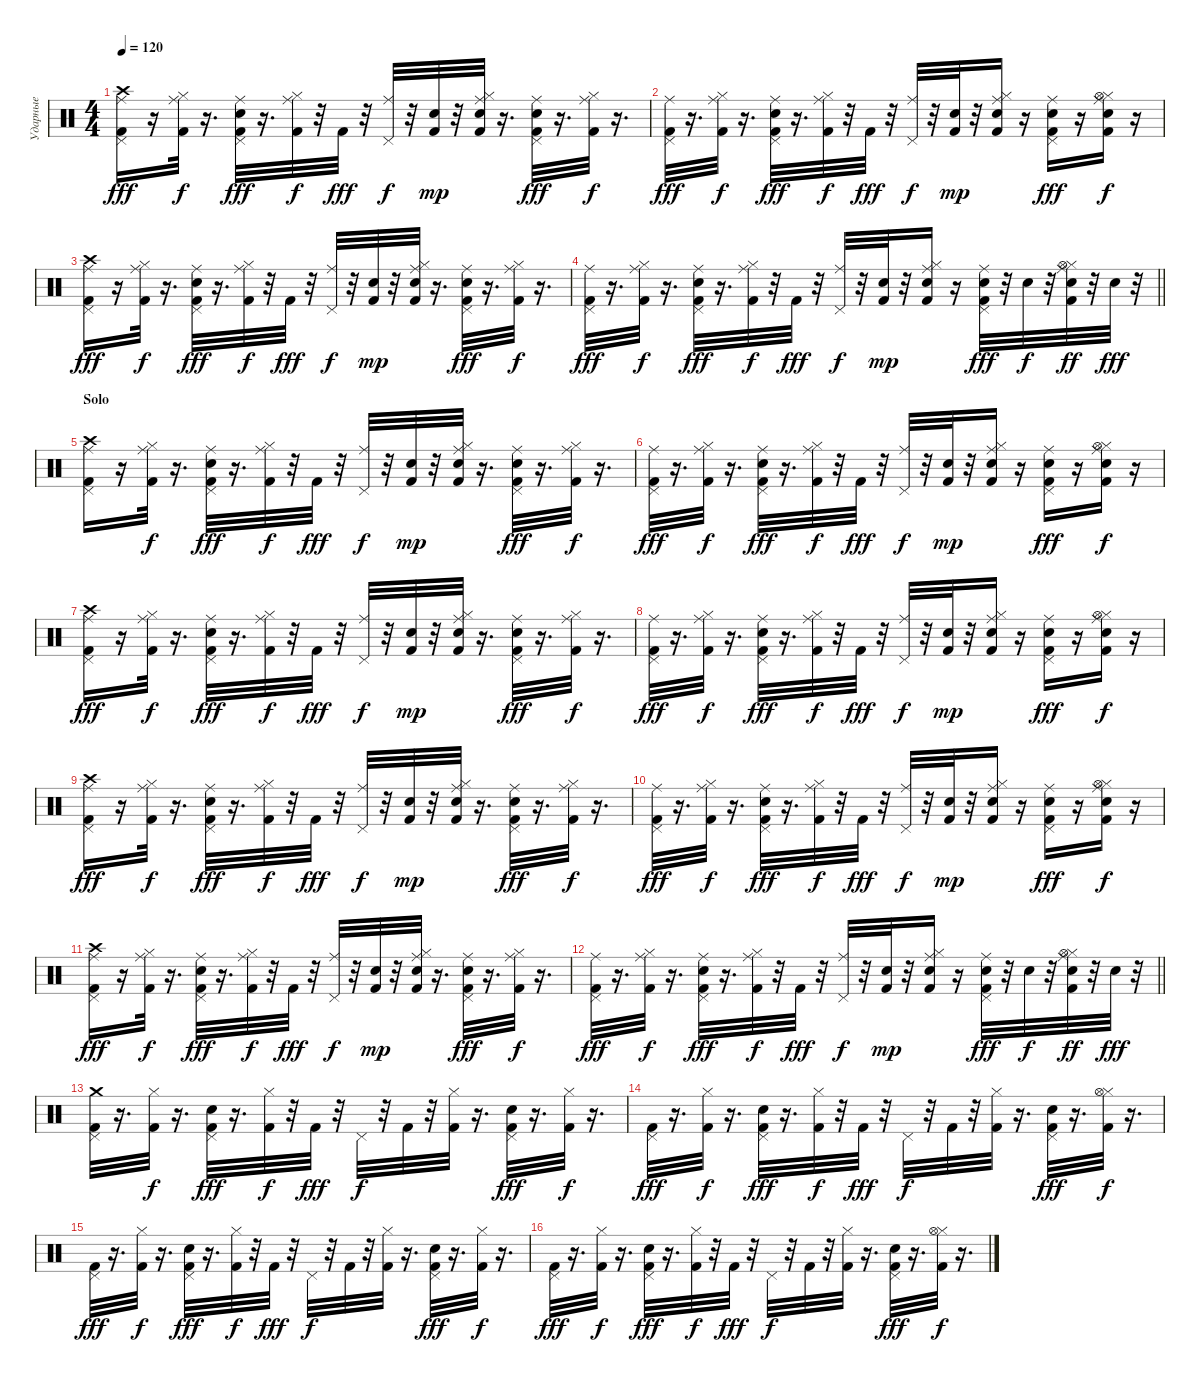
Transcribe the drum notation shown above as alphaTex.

\track ("Ударные" "Ударные") {instrument percussion}
\staff {score}
\articulation defaults
\ts (4 4)
\tempo 120
\clef neutral
\ks c
("Kick (hit) 2" "Pedal Hi-Hat (hit)" "Crash high (hit)" "Ride (middle)").16{dy fff} r.16 ("Kick (hit) 2" "Hi-Hat (closed)" "Ride (middle)").32{dy f} r.16{d} ("Kick (hit) 2" "Snare (hit) 2" "Pedal Hi-Hat (hit)" "Ride (middle)").32{dy fff} r.16{d} ("Kick (hit) 2" "Hi-Hat (closed)" "Ride (middle)").32{dy f} r.32 "Kick (hit) 2".32{dy fff} r.32 ("Pedal Hi-Hat (hit)" "Ride (middle)").32{dy f} r.32 ("Kick (hit) 2" "Snare (hit) 2").32{dy mp} r.32 ("Kick (hit) 2" "Snare (hit) 2" "Hi-Hat (closed)" "Ride (middle)").32 r.16{d} ("Kick (hit) 2" "Snare (hit) 2" "Pedal Hi-Hat (hit)" "Ride (middle)").32{dy fff} r.16{d} ("Kick (hit) 2" "Hi-Hat (closed)" "Ride (middle)").32{dy f} r.16{d} |
("Kick (hit) 2" "Pedal Hi-Hat (hit)" "Ride (middle)").32{dy fff} r.16{d} ("Kick (hit) 2" "Hi-Hat (closed)" "Ride (middle)").32{dy f} r.16{d} ("Kick (hit) 2" "Snare (hit) 2" "Pedal Hi-Hat (hit)" "Ride (middle)").32{dy fff} r.16{d} ("Kick (hit) 2" "Hi-Hat (closed)" "Ride (middle)").32{dy f} r.32 "Kick (hit) 2".32{dy fff} r.32 ("Pedal Hi-Hat (hit)" "Ride (middle)").32{dy f} r.32 ("Kick (hit) 2" "Snare (hit) 2").32{dy mp} r.32 ("Kick (hit) 2" "Snare (hit) 2" "Hi-Hat (closed)" "Ride (middle)").16 r.16 ("Kick (hit) 2" "Snare (hit) 2" "Pedal Hi-Hat (hit)" "Ride (middle)").16{dy fff} r.16 ("Kick (hit) 2" "Snare (hit) 2" "Hi-Hat (closed)" "Hi-Hat (open)" "Ride (middle)").16{dy f} r.16 |
("Kick (hit) 2" "Pedal Hi-Hat (hit)" "Crash high (hit)" "Ride (middle)").16{dy fff} r.16 ("Kick (hit) 2" "Hi-Hat (closed)" "Ride (middle)").32{dy f} r.16{d} ("Kick (hit) 2" "Snare (hit) 2" "Pedal Hi-Hat (hit)" "Ride (middle)").32{dy fff} r.16{d} ("Kick (hit) 2" "Hi-Hat (closed)" "Ride (middle)").32{dy f} r.32 "Kick (hit) 2".32{dy fff} r.32 ("Pedal Hi-Hat (hit)" "Ride (middle)").32{dy f} r.32 ("Kick (hit) 2" "Snare (hit) 2").32{dy mp} r.32 ("Kick (hit) 2" "Snare (hit) 2" "Hi-Hat (closed)" "Ride (middle)").32 r.16{d} ("Kick (hit) 2" "Snare (hit) 2" "Pedal Hi-Hat (hit)" "Ride (middle)").32{dy fff} r.16{d} ("Kick (hit) 2" "Hi-Hat (closed)" "Ride (middle)").32{dy f} r.16{d} |
\barLineRight lightlight
("Kick (hit) 2" "Pedal Hi-Hat (hit)" "Ride (middle)").32{dy fff} r.16{d} ("Kick (hit) 2" "Hi-Hat (closed)" "Ride (middle)").32{dy f} r.16{d} ("Kick (hit) 2" "Snare (hit) 2" "Pedal Hi-Hat (hit)" "Ride (middle)").32{dy fff} r.16{d} ("Kick (hit) 2" "Hi-Hat (closed)" "Ride (middle)").32{dy f} r.32 "Kick (hit) 2".32{dy fff} r.32 ("Pedal Hi-Hat (hit)" "Ride (middle)").32{dy f} r.32 ("Kick (hit) 2" "Snare (hit) 2").32{dy mp} r.32 ("Kick (hit) 2" "Snare (hit) 2" "Hi-Hat (closed)" "Ride (middle)").16 r.16 ("Kick (hit) 2" "Snare (hit) 2" "Pedal Hi-Hat (hit)" "Ride (middle)").32{dy fff} r.32 "Snare (hit) 2".32{dy f} r.32 ("Kick (hit) 2" "Snare (hit) 2" "Hi-Hat (closed)" "Hi-Hat (open)" "Ride (middle)").32{dy ff} r.32 "Snare (hit) 2".32{dy fff} r.32 |
\section ("" "Solo")
("Kick (hit) 2" "Pedal Hi-Hat (hit)" "Crash high (hit)" "Ride (middle)").16 r.16 ("Kick (hit) 2" "Hi-Hat (closed)" "Ride (middle)").32{dy f} r.16{d} ("Kick (hit) 2" "Snare (hit) 2" "Pedal Hi-Hat (hit)" "Ride (middle)").32{dy fff} r.16{d} ("Kick (hit) 2" "Hi-Hat (closed)" "Ride (middle)").32{dy f} r.32 "Kick (hit) 2".32{dy fff} r.32 ("Pedal Hi-Hat (hit)" "Ride (middle)").32{dy f} r.32 ("Kick (hit) 2" "Snare (hit) 2").32{dy mp} r.32 ("Kick (hit) 2" "Snare (hit) 2" "Hi-Hat (closed)" "Ride (middle)").32 r.16{d} ("Kick (hit) 2" "Snare (hit) 2" "Pedal Hi-Hat (hit)" "Ride (middle)").32{dy fff} r.16{d} ("Kick (hit) 2" "Hi-Hat (closed)" "Ride (middle)").32{dy f} r.16{d} |
("Kick (hit) 2" "Pedal Hi-Hat (hit)" "Ride (middle)").32{dy fff} r.16{d} ("Kick (hit) 2" "Hi-Hat (closed)" "Ride (middle)").32{dy f} r.16{d} ("Kick (hit) 2" "Snare (hit) 2" "Pedal Hi-Hat (hit)" "Ride (middle)").32{dy fff} r.16{d} ("Kick (hit) 2" "Hi-Hat (closed)" "Ride (middle)").32{dy f} r.32 "Kick (hit) 2".32{dy fff} r.32 ("Pedal Hi-Hat (hit)" "Ride (middle)").32{dy f} r.32 ("Kick (hit) 2" "Snare (hit) 2").32{dy mp} r.32 ("Kick (hit) 2" "Snare (hit) 2" "Hi-Hat (closed)" "Ride (middle)").16 r.16 ("Kick (hit) 2" "Snare (hit) 2" "Pedal Hi-Hat (hit)" "Ride (middle)").16{dy fff} r.16 ("Kick (hit) 2" "Snare (hit) 2" "Hi-Hat (closed)" "Hi-Hat (open)" "Ride (middle)").16{dy f} r.16 |
("Kick (hit) 2" "Pedal Hi-Hat (hit)" "Crash high (hit)" "Ride (middle)").16{dy fff} r.16 ("Kick (hit) 2" "Hi-Hat (closed)" "Ride (middle)").32{dy f} r.16{d} ("Kick (hit) 2" "Snare (hit) 2" "Pedal Hi-Hat (hit)" "Ride (middle)").32{dy fff} r.16{d} ("Kick (hit) 2" "Hi-Hat (closed)" "Ride (middle)").32{dy f} r.32 "Kick (hit) 2".32{dy fff} r.32 ("Pedal Hi-Hat (hit)" "Ride (middle)").32{dy f} r.32 ("Kick (hit) 2" "Snare (hit) 2").32{dy mp} r.32 ("Kick (hit) 2" "Snare (hit) 2" "Hi-Hat (closed)" "Ride (middle)").32 r.16{d} ("Kick (hit) 2" "Snare (hit) 2" "Pedal Hi-Hat (hit)" "Ride (middle)").32{dy fff} r.16{d} ("Kick (hit) 2" "Hi-Hat (closed)" "Ride (middle)").32{dy f} r.16{d} |
("Kick (hit) 2" "Pedal Hi-Hat (hit)" "Ride (middle)").32{dy fff} r.16{d} ("Kick (hit) 2" "Hi-Hat (closed)" "Ride (middle)").32{dy f} r.16{d} ("Kick (hit) 2" "Snare (hit) 2" "Pedal Hi-Hat (hit)" "Ride (middle)").32{dy fff} r.16{d} ("Kick (hit) 2" "Hi-Hat (closed)" "Ride (middle)").32{dy f} r.32 "Kick (hit) 2".32{dy fff} r.32 ("Pedal Hi-Hat (hit)" "Ride (middle)").32{dy f} r.32 ("Kick (hit) 2" "Snare (hit) 2").32{dy mp} r.32 ("Kick (hit) 2" "Snare (hit) 2" "Hi-Hat (closed)" "Ride (middle)").16 r.16 ("Kick (hit) 2" "Snare (hit) 2" "Pedal Hi-Hat (hit)" "Ride (middle)").16{dy fff} r.16 ("Kick (hit) 2" "Snare (hit) 2" "Hi-Hat (closed)" "Hi-Hat (open)" "Ride (middle)").16{dy f} r.16 |
("Kick (hit) 2" "Pedal Hi-Hat (hit)" "Crash high (hit)" "Ride (middle)").16{dy fff} r.16 ("Kick (hit) 2" "Hi-Hat (closed)" "Ride (middle)").32{dy f} r.16{d} ("Kick (hit) 2" "Snare (hit) 2" "Pedal Hi-Hat (hit)" "Ride (middle)").32{dy fff} r.16{d} ("Kick (hit) 2" "Hi-Hat (closed)" "Ride (middle)").32{dy f} r.32 "Kick (hit) 2".32{dy fff} r.32 ("Pedal Hi-Hat (hit)" "Ride (middle)").32{dy f} r.32 ("Kick (hit) 2" "Snare (hit) 2").32{dy mp} r.32 ("Kick (hit) 2" "Snare (hit) 2" "Hi-Hat (closed)" "Ride (middle)").32 r.16{d} ("Kick (hit) 2" "Snare (hit) 2" "Pedal Hi-Hat (hit)" "Ride (middle)").32{dy fff} r.16{d} ("Kick (hit) 2" "Hi-Hat (closed)" "Ride (middle)").32{dy f} r.16{d} |
("Kick (hit) 2" "Pedal Hi-Hat (hit)" "Ride (middle)").32{dy fff} r.16{d} ("Kick (hit) 2" "Hi-Hat (closed)" "Ride (middle)").32{dy f} r.16{d} ("Kick (hit) 2" "Snare (hit) 2" "Pedal Hi-Hat (hit)" "Ride (middle)").32{dy fff} r.16{d} ("Kick (hit) 2" "Hi-Hat (closed)" "Ride (middle)").32{dy f} r.32 "Kick (hit) 2".32{dy fff} r.32 ("Pedal Hi-Hat (hit)" "Ride (middle)").32{dy f} r.32 ("Kick (hit) 2" "Snare (hit) 2").32{dy mp} r.32 ("Kick (hit) 2" "Snare (hit) 2" "Hi-Hat (closed)" "Ride (middle)").16 r.16 ("Kick (hit) 2" "Snare (hit) 2" "Pedal Hi-Hat (hit)" "Ride (middle)").16{dy fff} r.16 ("Kick (hit) 2" "Snare (hit) 2" "Hi-Hat (closed)" "Hi-Hat (open)" "Ride (middle)").16{dy f} r.16 |
("Kick (hit) 2" "Pedal Hi-Hat (hit)" "Crash high (hit)" "Ride (middle)").16{dy fff} r.16 ("Kick (hit) 2" "Hi-Hat (closed)" "Ride (middle)").32{dy f} r.16{d} ("Kick (hit) 2" "Snare (hit) 2" "Pedal Hi-Hat (hit)" "Ride (middle)").32{dy fff} r.16{d} ("Kick (hit) 2" "Hi-Hat (closed)" "Ride (middle)").32{dy f} r.32 "Kick (hit) 2".32{dy fff} r.32 ("Pedal Hi-Hat (hit)" "Ride (middle)").32{dy f} r.32 ("Kick (hit) 2" "Snare (hit) 2").32{dy mp} r.32 ("Kick (hit) 2" "Snare (hit) 2" "Hi-Hat (closed)" "Ride (middle)").32 r.16{d} ("Kick (hit) 2" "Snare (hit) 2" "Pedal Hi-Hat (hit)" "Ride (middle)").32{dy fff} r.16{d} ("Kick (hit) 2" "Hi-Hat (closed)" "Ride (middle)").32{dy f} r.16{d} |
\barLineRight lightlight
("Kick (hit) 2" "Pedal Hi-Hat (hit)" "Ride (middle)").32{dy fff} r.16{d} ("Kick (hit) 2" "Hi-Hat (closed)" "Ride (middle)").32{dy f} r.16{d} ("Kick (hit) 2" "Snare (hit) 2" "Pedal Hi-Hat (hit)" "Ride (middle)").32{dy fff} r.16{d} ("Kick (hit) 2" "Hi-Hat (closed)" "Ride (middle)").32{dy f} r.32 "Kick (hit) 2".32{dy fff} r.32 ("Pedal Hi-Hat (hit)" "Ride (middle)").32{dy f} r.32 ("Kick (hit) 2" "Snare (hit) 2").32{dy mp} r.32 ("Kick (hit) 2" "Snare (hit) 2" "Hi-Hat (closed)" "Ride (middle)").16 r.16 ("Kick (hit) 2" "Snare (hit) 2" "Pedal Hi-Hat (hit)" "Ride (middle)").32{dy fff} r.32 "Snare (hit) 2".32{dy f} r.32 ("Kick (hit) 2" "Snare (hit) 2" "Hi-Hat (closed)" "Hi-Hat (open)" "Ride (middle)").32{dy ff} r.32 "Snare (hit) 2".32{dy fff} r.32 |
("Kick (hit) 2" "Pedal Hi-Hat (hit)" "Crash medium (hit)").32 r.16{d} ("Kick (hit) 2" "Hi-Hat (closed)").32{dy f} r.16{d} ("Kick (hit) 2" "Snare (hit) 2" "Pedal Hi-Hat (hit)").32{dy fff} r.16{d} ("Kick (hit) 2" "Hi-Hat (closed)").32{dy f} r.32 "Kick (hit) 2".32{dy fff} r.32 "Pedal Hi-Hat (hit)".32{dy f} r.32 "Kick (hit) 2".32 r.32 ("Kick (hit) 2" "Hi-Hat (closed)").32 r.16{d} ("Kick (hit) 2" "Snare (hit) 2" "Pedal Hi-Hat (hit)").32{dy fff} r.16{d} ("Kick (hit) 2" "Hi-Hat (closed)").32{dy f} r.16{d} |
("Kick (hit) 2" "Pedal Hi-Hat (hit)").32{dy fff} r.16{d} ("Kick (hit) 2" "Hi-Hat (closed)").32{dy f} r.16{d} ("Kick (hit) 2" "Snare (hit) 2" "Pedal Hi-Hat (hit)").32{dy fff} r.16{d} ("Kick (hit) 2" "Hi-Hat (closed)").32{dy f} r.32 "Kick (hit) 2".32{dy fff} r.32 "Pedal Hi-Hat (hit)".32{dy f} r.32 "Kick (hit) 2".32 r.32 ("Kick (hit) 2" "Hi-Hat (closed)").32 r.16{d} ("Kick (hit) 2" "Snare (hit) 2" "Pedal Hi-Hat (hit)").32{dy fff} r.16{d} ("Kick (hit) 2" "Hi-Hat (closed)" "Hi-Hat (open)").32{dy f} r.16{d} |
("Kick (hit) 2" "Pedal Hi-Hat (hit)").32{dy fff} r.16{d} ("Kick (hit) 2" "Hi-Hat (closed)").32{dy f} r.16{d} ("Kick (hit) 2" "Snare (hit) 2" "Pedal Hi-Hat (hit)").32{dy fff} r.16{d} ("Kick (hit) 2" "Hi-Hat (closed)").32{dy f} r.32 "Kick (hit) 2".32{dy fff} r.32 "Pedal Hi-Hat (hit)".32{dy f} r.32 "Kick (hit) 2".32 r.32 ("Kick (hit) 2" "Hi-Hat (closed)").32 r.16{d} ("Kick (hit) 2" "Snare (hit) 2" "Pedal Hi-Hat (hit)").32{dy fff} r.16{d} ("Kick (hit) 2" "Hi-Hat (closed)").32{dy f} r.16{d} |
("Kick (hit) 2" "Pedal Hi-Hat (hit)").32{dy fff} r.16{d} ("Kick (hit) 2" "Hi-Hat (closed)").32{dy f} r.16{d} ("Kick (hit) 2" "Snare (hit) 2" "Pedal Hi-Hat (hit)").32{dy fff} r.16{d} ("Kick (hit) 2" "Hi-Hat (closed)").32{dy f} r.32 "Kick (hit) 2".32{dy fff} r.32 "Pedal Hi-Hat (hit)".32{dy f} r.32 "Kick (hit) 2".32 r.32 ("Kick (hit) 2" "Hi-Hat (closed)").32 r.16{d} ("Kick (hit) 2" "Snare (hit) 2" "Pedal Hi-Hat (hit)").32{dy fff} r.16{d} ("Kick (hit) 2" "Hi-Hat (closed)" "Hi-Hat (open)").32{dy f} r.16{d}
